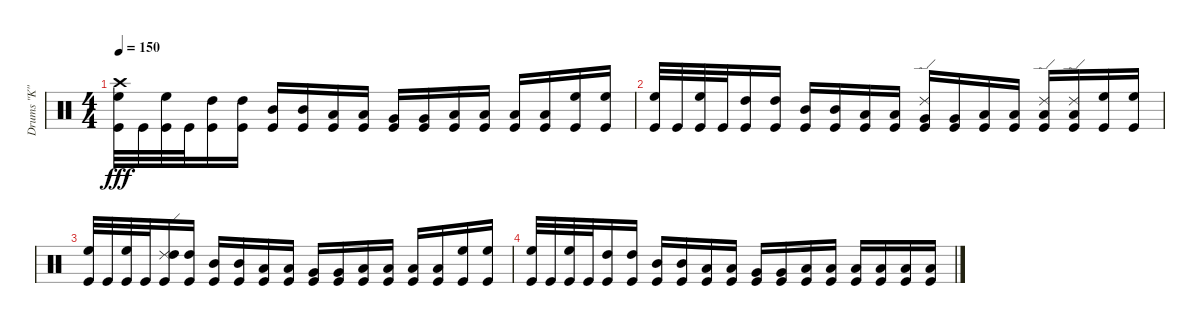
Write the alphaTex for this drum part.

\track ("Drums \"K\"" "Drums \"K\"") {instrument percussion}
\staff {score}
\articulation defaults
\ts (4 4)
\tempo 150
\clef neutral
\ks c
("Crash high (hit)" "High Floor Tom (hit)" "Kick (hit)").32{dy fff} "Kick (hit)".32 ("High Floor Tom (hit)" "Kick (hit)").32 "Kick (hit)".32 ("High Tom (hit)" "Kick (hit)").16 ("High Tom (hit)" "Kick (hit)").16 ("Mid Tom (hit)" "Kick (hit)").16 ("Mid Tom (hit)" "Kick (hit)").16 ("Low Tom (hit)" "Kick (hit)").16 ("Low Tom (hit)" "Kick (hit)").16 ("Very Low Tom (hit)" "Kick (hit)").16 ("Very Low Tom (hit)" "Kick (hit)").16 ("Low Floor Tom (hit)" "Kick (hit)").16 ("Low Floor Tom (hit)" "Kick (hit)").16 ("Low Floor Tom (hit)" "Kick (hit)").16 ("Low Floor Tom (hit)" "Kick (hit)").16 ("High Floor Tom (hit)" "Kick (hit)").16 ("High Floor Tom (hit)" "Kick (hit)").16 |
("High Floor Tom (hit)" "Kick (hit)").32 "Kick (hit)".32 ("High Floor Tom (hit)" "Kick (hit)").32 "Kick (hit)".32 ("High Tom (hit)" "Kick (hit)").16 ("High Tom (hit)" "Kick (hit)").16 ("Mid Tom (hit)" "Kick (hit)").16 ("Mid Tom (hit)" "Kick (hit)").16 ("Low Tom (hit)" "Kick (hit)").16 ("Low Tom (hit)" "Kick (hit)").16 ("Ride (edge) 2" "Very Low Tom (hit)" "Kick (hit)").16 ("Very Low Tom (hit)" "Kick (hit)").16 ("Low Floor Tom (hit)" "Kick (hit)").16 ("Low Floor Tom (hit)" "Kick (hit)").16 ("Ride (edge) 2" "Low Floor Tom (hit)" "Kick (hit)").16 ("Ride (edge) 2" "Low Floor Tom (hit)" "Kick (hit)").16 ("High Floor Tom (hit)" "Kick (hit)").16 ("High Floor Tom (hit)" "Kick (hit)").16 |
("High Floor Tom (hit)" "Kick (hit)").32 "Kick (hit)".32 ("High Floor Tom (hit)" "Kick (hit)").32 "Kick (hit)".32 ("Ride (edge) 2" "High Tom (hit)" "Kick (hit)").16 ("High Tom (hit)" "Kick (hit)").16 ("Mid Tom (hit)" "Kick (hit)").16 ("Mid Tom (hit)" "Kick (hit)").16 ("Low Tom (hit)" "Kick (hit)").16 ("Low Tom (hit)" "Kick (hit)").16 ("Very Low Tom (hit)" "Kick (hit)").16 ("Very Low Tom (hit)" "Kick (hit)").16 ("Low Floor Tom (hit)" "Kick (hit)").16 ("Low Floor Tom (hit)" "Kick (hit)").16 ("Low Floor Tom (hit)" "Kick (hit)").16 ("Low Floor Tom (hit)" "Kick (hit)").16 ("High Floor Tom (hit)" "Kick (hit)").16 ("High Floor Tom (hit)" "Kick (hit)").16 |
("High Floor Tom (hit)" "Kick (hit)").32 "Kick (hit)".32 ("High Floor Tom (hit)" "Kick (hit)").32 "Kick (hit)".32 ("High Tom (hit)" "Kick (hit)").16 ("High Tom (hit)" "Kick (hit)").16 ("Mid Tom (hit)" "Kick (hit)").16 ("Mid Tom (hit)" "Kick (hit)").16 ("Low Tom (hit)" "Kick (hit)").16 ("Low Tom (hit)" "Kick (hit)").16 ("Very Low Tom (hit)" "Kick (hit)").16 ("Very Low Tom (hit)" "Kick (hit)").16 ("Low Floor Tom (hit)" "Kick (hit)").16 ("Low Floor Tom (hit)" "Kick (hit)").16 ("Low Floor Tom (hit)" "Kick (hit)").16 ("Low Floor Tom (hit)" "Kick (hit)").16 ("Low Floor Tom (hit)" "Kick (hit)").16 ("Low Floor Tom (hit)" "Kick (hit)").16
